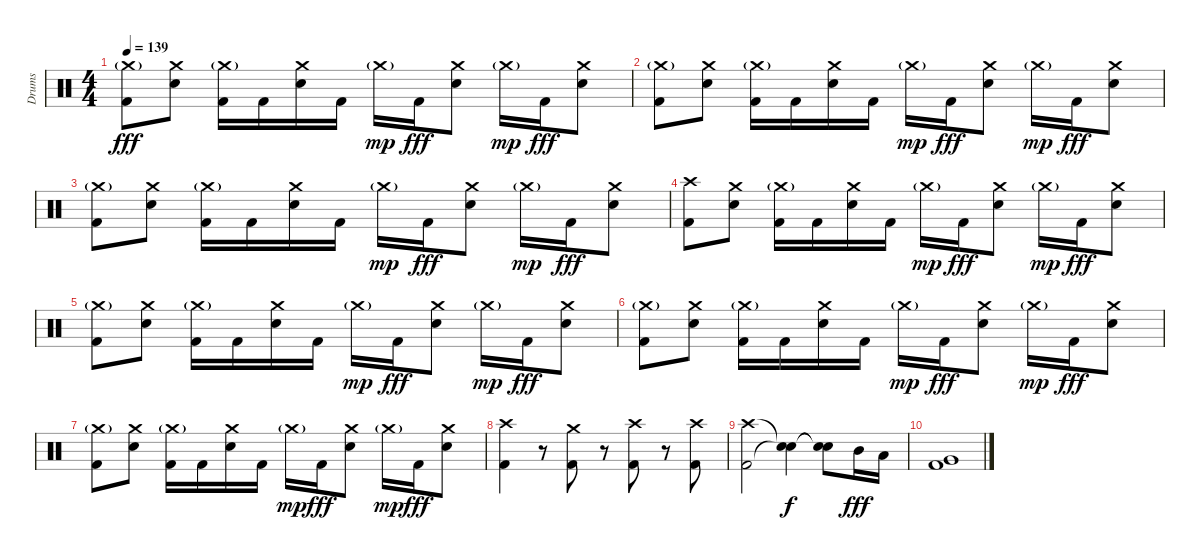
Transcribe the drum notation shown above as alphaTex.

\track ("Drums" "Drums") {instrument percussion}
\staff {score}
\articulation defaults
\ts (4 4)
\tempo 139
\clef neutral
\ks c
("Crash medium (hit)"{g} "Kick (hit) 2").8{dy fff} ("Crash medium (hit)" "Electric Snare (hit)").8 ("Crash medium (hit)"{g} "Kick (hit) 2").16 "Kick (hit) 2".16 ("Crash medium (hit)" "Electric Snare (hit)").16 "Kick (hit) 2".16 "Crash medium (hit)"{g}.16{dy mp} "Kick (hit) 2".16{dy fff} ("Crash medium (hit)" "Electric Snare (hit)").8 "Crash medium (hit)"{g}.16{dy mp} "Kick (hit) 2".16{dy fff} ("Crash medium (hit)" "Electric Snare (hit)").8 |
("Crash medium (hit)"{g} "Kick (hit) 2").8 ("Crash medium (hit)" "Electric Snare (hit)").8 ("Crash medium (hit)"{g} "Kick (hit) 2").16 "Kick (hit) 2".16 ("Crash medium (hit)" "Electric Snare (hit)").16 "Kick (hit) 2".16 "Crash medium (hit)"{g}.16{dy mp} "Kick (hit) 2".16{dy fff} ("Crash medium (hit)" "Electric Snare (hit)").8 "Crash medium (hit)"{g}.16{dy mp} "Kick (hit) 2".16{dy fff} ("Crash medium (hit)" "Electric Snare (hit)").8 |
("Crash medium (hit)"{g} "Kick (hit) 2").8 ("Crash medium (hit)" "Electric Snare (hit)").8 ("Crash medium (hit)"{g} "Kick (hit) 2").16 "Kick (hit) 2".16 ("Crash medium (hit)" "Electric Snare (hit)").16 "Kick (hit) 2".16 "Crash medium (hit)"{g}.16{dy mp} "Kick (hit) 2".16{dy fff} ("Crash medium (hit)" "Electric Snare (hit)").8 "Crash medium (hit)"{g}.16{dy mp} "Kick (hit) 2".16{dy fff} ("Crash medium (hit)" "Electric Snare (hit)").8 |
("Crash high (hit)" "Kick (hit) 2").8 ("Crash medium (hit)" "Electric Snare (hit)").8 ("Crash medium (hit)"{g} "Kick (hit) 2").16 "Kick (hit) 2".16 ("Crash medium (hit)" "Electric Snare (hit)").16 "Kick (hit) 2".16 "Crash medium (hit)"{g}.16{dy mp} "Kick (hit) 2".16{dy fff} ("Crash medium (hit)" "Electric Snare (hit)").8 "Crash medium (hit)"{g}.16{dy mp} "Kick (hit) 2".16{dy fff} ("Crash medium (hit)" "Electric Snare (hit)").8 |
("Crash medium (hit)"{g} "Kick (hit) 2").8 ("Crash medium (hit)" "Electric Snare (hit)").8 ("Crash medium (hit)"{g} "Kick (hit) 2").16 "Kick (hit) 2".16 ("Crash medium (hit)" "Electric Snare (hit)").16 "Kick (hit) 2".16 "Crash medium (hit)"{g}.16{dy mp} "Kick (hit) 2".16{dy fff} ("Crash medium (hit)" "Electric Snare (hit)").8 "Crash medium (hit)"{g}.16{dy mp} "Kick (hit) 2".16{dy fff} ("Crash medium (hit)" "Electric Snare (hit)").8 |
("Crash medium (hit)"{g} "Kick (hit) 2").8 ("Crash medium (hit)" "Electric Snare (hit)").8 ("Crash medium (hit)"{g} "Kick (hit) 2").16 "Kick (hit) 2".16 ("Crash medium (hit)" "Electric Snare (hit)").16 "Kick (hit) 2".16 "Crash medium (hit)"{g}.16{dy mp} "Kick (hit) 2".16{dy fff} ("Crash medium (hit)" "Electric Snare (hit)").8 "Crash medium (hit)"{g}.16{dy mp} "Kick (hit) 2".16{dy fff} ("Crash medium (hit)" "Electric Snare (hit)").8 |
("Crash medium (hit)"{g} "Kick (hit) 2").8 ("Crash medium (hit)" "Electric Snare (hit)").8 ("Crash medium (hit)"{g} "Kick (hit) 2").16 "Kick (hit) 2".16 ("Crash medium (hit)" "Electric Snare (hit)").16 "Kick (hit) 2".16 "Crash medium (hit)"{g}.16{dy mp} "Kick (hit) 2".16{dy fff} ("Crash medium (hit)" "Electric Snare (hit)").8 "Crash medium (hit)"{g}.16{dy mp} "Kick (hit) 2".16{dy fff} ("Crash medium (hit)" "Electric Snare (hit)").8 |
("Crash high (hit)" "Kick (hit) 2").4 r.8 ("Crash medium (hit)" "Kick (hit) 2").8 r.8 ("Crash high (hit)" "Kick (hit) 2").8 r.8 ("Crash high (hit)" "Kick (hit) 2").8 |
("Crash high (hit)" "Kick (hit) 2").2 ("Snare (hit)"{t} "Snare (hit)"{t}).4{dy f} ("Snare (hit)"{t} "Snare (hit)"{t}).8 "Mid Tom (hit)".16{dy fff} "Low Tom (hit)".16 |
("Very Low Tom (hit)" "Kick (hit) 2").1
